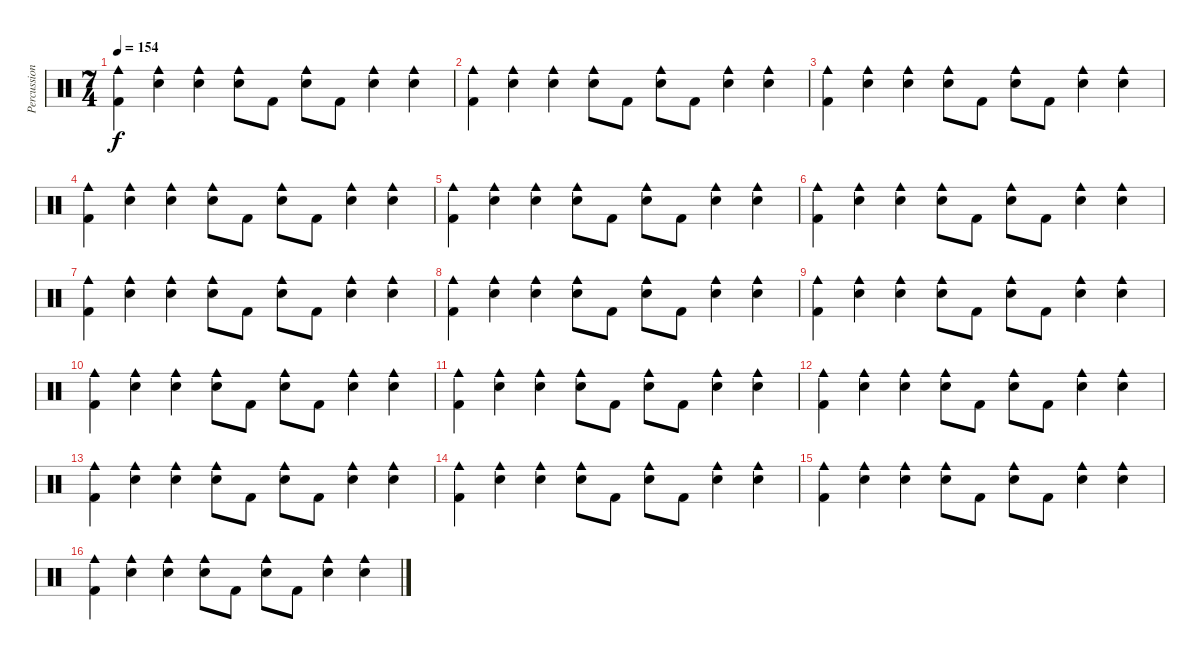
\track ("Percussion" "Percussion") {instrument percussion}
\staff {score}
\articulation defaults
\ts (7 4)
\tempo 154
\clef neutral
\ks c
("Cowbell medium (hit)" "Kick (hit) 2").4{dy f} ("Cowbell medium (hit)" "Snare (hit) 2").4 ("Cowbell medium (hit)" "Snare (hit) 2").4 ("Cowbell medium (hit)" "Snare (hit) 2").8 "Kick (hit) 2".8 ("Cowbell medium (hit)" "Snare (hit) 2").8 "Kick (hit) 2".8 ("Cowbell medium (hit)" "Snare (hit) 2").4 ("Cowbell medium (hit)" "Snare (hit) 2").4 |
("Cowbell medium (hit)" "Kick (hit) 2").4 ("Cowbell medium (hit)" "Snare (hit) 2").4 ("Cowbell medium (hit)" "Snare (hit) 2").4 ("Cowbell medium (hit)" "Snare (hit) 2").8 "Kick (hit) 2".8 ("Cowbell medium (hit)" "Snare (hit) 2").8 "Kick (hit) 2".8 ("Cowbell medium (hit)" "Snare (hit) 2").4 ("Cowbell medium (hit)" "Snare (hit) 2").4 |
("Cowbell medium (hit)" "Kick (hit) 2").4 ("Cowbell medium (hit)" "Snare (hit) 2").4 ("Cowbell medium (hit)" "Snare (hit) 2").4 ("Cowbell medium (hit)" "Snare (hit) 2").8 "Kick (hit) 2".8 ("Cowbell medium (hit)" "Snare (hit) 2").8 "Kick (hit) 2".8 ("Cowbell medium (hit)" "Snare (hit) 2").4 ("Cowbell medium (hit)" "Snare (hit) 2").4 |
("Cowbell medium (hit)" "Kick (hit) 2").4 ("Cowbell medium (hit)" "Snare (hit) 2").4 ("Cowbell medium (hit)" "Snare (hit) 2").4 ("Cowbell medium (hit)" "Snare (hit) 2").8 "Kick (hit) 2".8 ("Cowbell medium (hit)" "Snare (hit) 2").8 "Kick (hit) 2".8 ("Cowbell medium (hit)" "Snare (hit) 2").4 ("Cowbell medium (hit)" "Snare (hit) 2").4 |
("Cowbell medium (hit)" "Kick (hit) 2").4 ("Cowbell medium (hit)" "Snare (hit) 2").4 ("Cowbell medium (hit)" "Snare (hit) 2").4 ("Cowbell medium (hit)" "Snare (hit) 2").8 "Kick (hit) 2".8 ("Cowbell medium (hit)" "Snare (hit) 2").8 "Kick (hit) 2".8 ("Cowbell medium (hit)" "Snare (hit) 2").4 ("Cowbell medium (hit)" "Snare (hit) 2").4 |
("Cowbell medium (hit)" "Kick (hit) 2").4 ("Cowbell medium (hit)" "Snare (hit) 2").4 ("Cowbell medium (hit)" "Snare (hit) 2").4 ("Cowbell medium (hit)" "Snare (hit) 2").8 "Kick (hit) 2".8 ("Cowbell medium (hit)" "Snare (hit) 2").8 "Kick (hit) 2".8 ("Cowbell medium (hit)" "Snare (hit) 2").4 ("Cowbell medium (hit)" "Snare (hit) 2").4 |
("Cowbell medium (hit)" "Kick (hit) 2").4 ("Cowbell medium (hit)" "Snare (hit) 2").4 ("Cowbell medium (hit)" "Snare (hit) 2").4 ("Cowbell medium (hit)" "Snare (hit) 2").8 "Kick (hit) 2".8 ("Cowbell medium (hit)" "Snare (hit) 2").8 "Kick (hit) 2".8 ("Cowbell medium (hit)" "Snare (hit) 2").4 ("Cowbell medium (hit)" "Snare (hit) 2").4 |
("Cowbell medium (hit)" "Kick (hit) 2").4 ("Cowbell medium (hit)" "Snare (hit) 2").4 ("Cowbell medium (hit)" "Snare (hit) 2").4 ("Cowbell medium (hit)" "Snare (hit) 2").8 "Kick (hit) 2".8 ("Cowbell medium (hit)" "Snare (hit) 2").8 "Kick (hit) 2".8 ("Cowbell medium (hit)" "Snare (hit) 2").4 ("Cowbell medium (hit)" "Snare (hit) 2").4 |
("Cowbell medium (hit)" "Kick (hit) 2").4 ("Cowbell medium (hit)" "Snare (hit) 2").4 ("Cowbell medium (hit)" "Snare (hit) 2").4 ("Cowbell medium (hit)" "Snare (hit) 2").8 "Kick (hit) 2".8 ("Cowbell medium (hit)" "Snare (hit) 2").8 "Kick (hit) 2".8 ("Cowbell medium (hit)" "Snare (hit) 2").4 ("Cowbell medium (hit)" "Snare (hit) 2").4 |
("Cowbell medium (hit)" "Kick (hit) 2").4 ("Cowbell medium (hit)" "Snare (hit) 2").4 ("Cowbell medium (hit)" "Snare (hit) 2").4 ("Cowbell medium (hit)" "Snare (hit) 2").8 "Kick (hit) 2".8 ("Cowbell medium (hit)" "Snare (hit) 2").8 "Kick (hit) 2".8 ("Cowbell medium (hit)" "Snare (hit) 2").4 ("Cowbell medium (hit)" "Snare (hit) 2").4 |
("Cowbell medium (hit)" "Kick (hit) 2").4 ("Cowbell medium (hit)" "Snare (hit) 2").4 ("Cowbell medium (hit)" "Snare (hit) 2").4 ("Cowbell medium (hit)" "Snare (hit) 2").8 "Kick (hit) 2".8 ("Cowbell medium (hit)" "Snare (hit) 2").8 "Kick (hit) 2".8 ("Cowbell medium (hit)" "Snare (hit) 2").4 ("Cowbell medium (hit)" "Snare (hit) 2").4 |
("Cowbell medium (hit)" "Kick (hit) 2").4 ("Cowbell medium (hit)" "Snare (hit) 2").4 ("Cowbell medium (hit)" "Snare (hit) 2").4 ("Cowbell medium (hit)" "Snare (hit) 2").8 "Kick (hit) 2".8 ("Cowbell medium (hit)" "Snare (hit) 2").8 "Kick (hit) 2".8 ("Cowbell medium (hit)" "Snare (hit) 2").4 ("Cowbell medium (hit)" "Snare (hit) 2").4 |
("Cowbell medium (hit)" "Kick (hit) 2").4 ("Cowbell medium (hit)" "Snare (hit) 2").4 ("Cowbell medium (hit)" "Snare (hit) 2").4 ("Cowbell medium (hit)" "Snare (hit) 2").8 "Kick (hit) 2".8 ("Cowbell medium (hit)" "Snare (hit) 2").8 "Kick (hit) 2".8 ("Cowbell medium (hit)" "Snare (hit) 2").4 ("Cowbell medium (hit)" "Snare (hit) 2").4 |
("Cowbell medium (hit)" "Kick (hit) 2").4 ("Cowbell medium (hit)" "Snare (hit) 2").4 ("Cowbell medium (hit)" "Snare (hit) 2").4 ("Cowbell medium (hit)" "Snare (hit) 2").8 "Kick (hit) 2".8 ("Cowbell medium (hit)" "Snare (hit) 2").8 "Kick (hit) 2".8 ("Cowbell medium (hit)" "Snare (hit) 2").4 ("Cowbell medium (hit)" "Snare (hit) 2").4 |
("Cowbell medium (hit)" "Kick (hit) 2").4 ("Cowbell medium (hit)" "Snare (hit) 2").4 ("Cowbell medium (hit)" "Snare (hit) 2").4 ("Cowbell medium (hit)" "Snare (hit) 2").8 "Kick (hit) 2".8 ("Cowbell medium (hit)" "Snare (hit) 2").8 "Kick (hit) 2".8 ("Cowbell medium (hit)" "Snare (hit) 2").4 ("Cowbell medium (hit)" "Snare (hit) 2").4 |
("Cowbell medium (hit)" "Kick (hit) 2").4 ("Cowbell medium (hit)" "Snare (hit) 2").4 ("Cowbell medium (hit)" "Snare (hit) 2").4 ("Cowbell medium (hit)" "Snare (hit) 2").8 "Kick (hit) 2".8 ("Cowbell medium (hit)" "Snare (hit) 2").8 "Kick (hit) 2".8 ("Cowbell medium (hit)" "Snare (hit) 2").4 ("Cowbell medium (hit)" "Snare (hit) 2").4
